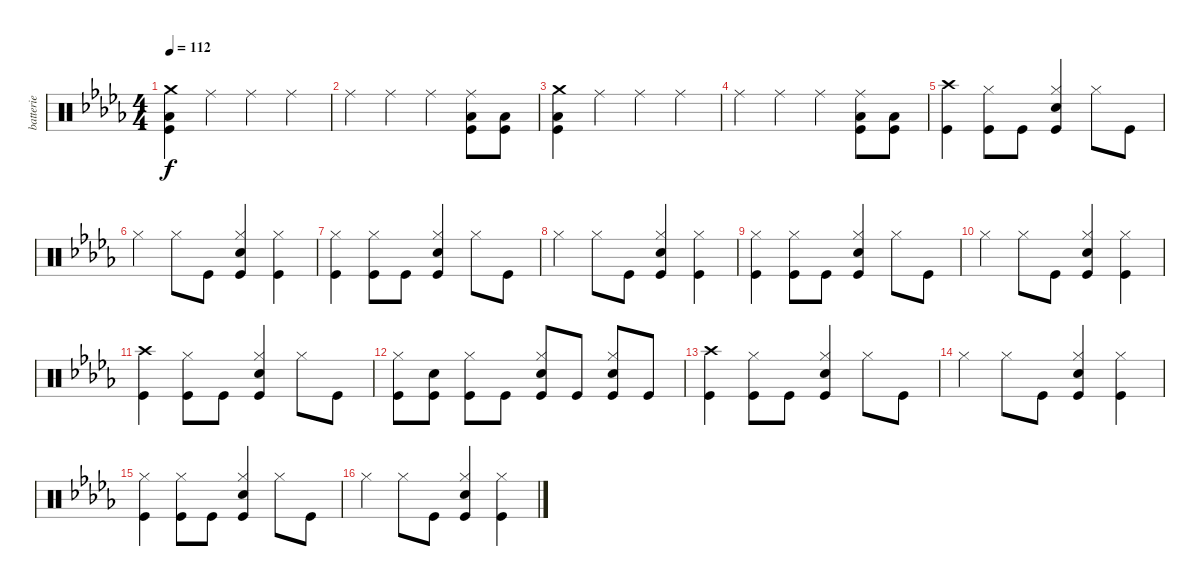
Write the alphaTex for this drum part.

\track ("batterie" "batterie") {instrument percussion}
\staff {score}
\articulation defaults
\ts (4 4)
\tempo 112
\clef neutral
\ks bbminor
("Kick (hit)" "Low Floor Tom (hit)" "Crash medium (hit)").4{dy f} "Ride (middle)".4 "Ride (middle)".4 "Ride (middle)".4 |
"Ride (middle)".4 "Ride (middle)".4 "Ride (middle)".4 ("Kick (hit)" "Low Floor Tom (hit)" "Ride (middle)").8 ("Kick (hit)" "Low Floor Tom (hit)").8 |
("Kick (hit)" "Low Floor Tom (hit)" "Crash medium (hit)").4 "Ride (middle)".4 "Ride (middle)".4 "Ride (middle)".4 |
"Ride (middle)".4 "Ride (middle)".4 "Ride (middle)".4 ("Kick (hit)" "Low Floor Tom (hit)" "Ride (middle)").8 ("Kick (hit)" "Low Floor Tom (hit)").8 |
("Kick (hit)" "Crash high (hit)").4 ("Kick (hit)" "Hi-Hat (closed)").8 "Kick (hit)".8 ("Kick (hit)" "Snare (hit) 2" "Hi-Hat (closed)").4 "Hi-Hat (closed)".8 "Kick (hit)".8 |
"Hi-Hat (closed)".4 "Hi-Hat (closed)".8 "Kick (hit)".8 ("Kick (hit)" "Snare (hit) 2" "Hi-Hat (closed)").4 ("Kick (hit)" "Hi-Hat (closed)").4 |
("Kick (hit)" "Hi-Hat (closed)").4 ("Kick (hit)" "Hi-Hat (closed)").8 "Kick (hit)".8 ("Kick (hit)" "Snare (hit) 2" "Hi-Hat (closed)").4 "Hi-Hat (closed)".8 "Kick (hit)".8 |
"Hi-Hat (closed)".4 "Hi-Hat (closed)".8 "Kick (hit)".8 ("Kick (hit)" "Snare (hit) 2" "Hi-Hat (closed)").4 ("Kick (hit)" "Hi-Hat (closed)").4 |
("Kick (hit)" "Hi-Hat (closed)").4 ("Kick (hit)" "Hi-Hat (closed)").8 "Kick (hit)".8 ("Kick (hit)" "Snare (hit) 2" "Hi-Hat (closed)").4 "Hi-Hat (closed)".8 "Kick (hit)".8 |
"Hi-Hat (closed)".4 "Hi-Hat (closed)".8 "Kick (hit)".8 ("Kick (hit)" "Snare (hit) 2" "Hi-Hat (closed)").4 ("Kick (hit)" "Hi-Hat (closed)").4 |
("Kick (hit)" "Crash high (hit)").4 ("Kick (hit)" "Hi-Hat (closed)").8 "Kick (hit)".8 ("Kick (hit)" "Snare (hit) 2" "Hi-Hat (closed)").4 "Hi-Hat (closed)".8 "Kick (hit)".8 |
("Kick (hit)" "Hi-Hat (closed)").8 ("Kick (hit)" "Snare (hit) 2").8 ("Kick (hit)" "Hi-Hat (closed)").8 "Kick (hit)".8 ("Kick (hit)" "Snare (hit) 2" "Hi-Hat (closed)").8 "Kick (hit)".8 ("Kick (hit)" "Snare (hit) 2" "Hi-Hat (closed)").8 "Kick (hit)".8 |
("Kick (hit)" "Crash high (hit)").4 ("Kick (hit)" "Hi-Hat (closed)").8 "Kick (hit)".8 ("Kick (hit)" "Snare (hit) 2" "Hi-Hat (closed)").4 "Hi-Hat (closed)".8 "Kick (hit)".8 |
"Hi-Hat (closed)".4 "Hi-Hat (closed)".8 "Kick (hit)".8 ("Kick (hit)" "Snare (hit) 2" "Hi-Hat (closed)").4 ("Kick (hit)" "Hi-Hat (closed)").4 |
("Kick (hit)" "Hi-Hat (closed)").4 ("Kick (hit)" "Hi-Hat (closed)").8 "Kick (hit)".8 ("Kick (hit)" "Snare (hit) 2" "Hi-Hat (closed)").4 "Hi-Hat (closed)".8 "Kick (hit)".8 |
"Hi-Hat (closed)".4 "Hi-Hat (closed)".8 "Kick (hit)".8 ("Kick (hit)" "Snare (hit) 2" "Hi-Hat (closed)").4 ("Kick (hit)" "Hi-Hat (closed)").4
